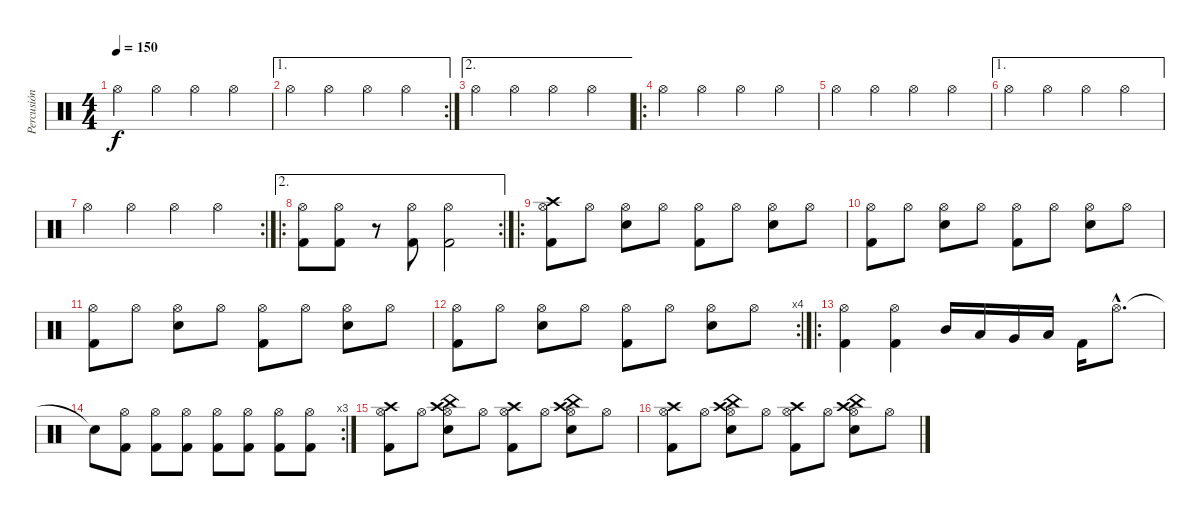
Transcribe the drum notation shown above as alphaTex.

\track ("Percusión (Raymundo Fajardo)" "Percusión ") {instrument percussion}
\staff {score}
\articulation defaults
\ts (4 4)
\tempo 150
\clef neutral
\ks c "Hi-Hat (open)".4{dy f} "Hi-Hat (open)".4 "Hi-Hat (open)".4 "Hi-Hat (open)".4
|
\ae 1
\rc 2 "Hi-Hat (open)".4 "Hi-Hat (open)".4 "Hi-Hat (open)".4 "Hi-Hat (open)".4
|
\ae 2 "Hi-Hat (open)".4 "Hi-Hat (open)".4 "Hi-Hat (open)".4 "Hi-Hat (open)".4
|
\ro "Hi-Hat (open)".4 "Hi-Hat (open)".4 "Hi-Hat (open)".4 "Hi-Hat (open)".4
|
"Hi-Hat (open)".4 "Hi-Hat (open)".4 "Hi-Hat (open)".4 "Hi-Hat (open)".4 |
\ae 1 "Hi-Hat (open)".4 "Hi-Hat (open)".4 "Hi-Hat (open)".4 "Hi-Hat (open)".4
|
\rc 2 "Hi-Hat (open)".4 "Hi-Hat (open)".4 "Hi-Hat (open)".4 "Hi-Hat (open)".4
|
\ae 2
\ro
\rc 2
("Kick (hit) 2" "Hi-Hat (open)").8 ("Kick (hit) 2" "Hi-Hat (open)").8 r.8 ("Kick (hit) 2" "Hi-Hat (open)").8 ("Kick (hit) 2" "Hi-Hat (open)").2 |
\ro
("Hi-Hat (open)" "Crash high (hit)" "Kick (hit) 2").8 "Hi-Hat (open)".8 ("Hi-Hat (open)" "Snare (hit) 2").8 "Hi-Hat (open)".8 ("Hi-Hat (open)" "Kick (hit) 2").8 "Hi-Hat (open)".8 ("Hi-Hat (open)" "Snare (hit) 2").8 "Hi-Hat (open)".8 |
("Hi-Hat (open)" "Kick (hit) 2").8 "Hi-Hat (open)".8 ("Hi-Hat (open)" "Snare (hit) 2").8 "Hi-Hat (open)".8 ("Hi-Hat (open)" "Kick (hit) 2").8 "Hi-Hat (open)".8 ("Hi-Hat (open)" "Snare (hit) 2").8 "Hi-Hat (open)".8 |
("Hi-Hat (open)" "Kick (hit) 2").8 "Hi-Hat (open)".8 ("Hi-Hat (open)" "Snare (hit) 2").8 "Hi-Hat (open)".8 ("Hi-Hat (open)" "Kick (hit) 2").8 "Hi-Hat (open)".8 ("Hi-Hat (open)" "Snare (hit) 2").8 "Hi-Hat (open)".8 |
\rc 4
("Hi-Hat (open)" "Kick (hit) 2").8 "Hi-Hat (open)".8 ("Hi-Hat (open)" "Snare (hit) 2").8 "Hi-Hat (open)".8 ("Hi-Hat (open)" "Kick (hit) 2").8 "Hi-Hat (open)".8 ("Hi-Hat (open)" "Snare (hit) 2").8 "Hi-Hat (open)".8 |
\ro
("Hi-Hat (open)" "Kick (hit) 2").4 ("Hi-Hat (open)" "Kick (hit) 2").4 "Mid Tom (hit)".16 "Low Tom (hit)".16 "Very Low Tom (hit)".16 "Low Floor Tom (hit)".16 "Kick (hit) 2".16 "Hi-Hat (open)"{hac}.8{d} |
\rc 3 "Snare (hit)"{t}.8
("Hi-Hat (open)" "Kick (hit) 2").8 ("Hi-Hat (open)" "Kick (hit) 2").8 ("Hi-Hat (open)" "Kick (hit) 2").8 ("Hi-Hat (open)" "Kick (hit) 2").8 ("Hi-Hat (open)" "Kick (hit) 2").8 ("Hi-Hat (open)" "Kick (hit) 2").8 ("Hi-Hat (open)" "Kick (hit) 2").8 |
("Hi-Hat (open)" "Kick (hit) 2" "Crash high (hit)").8 "Hi-Hat (open)".8 ("Hi-Hat (open)" "Snare (hit) 2" "Crash high (hit)" "China (hit)").8 "Hi-Hat (open)".8 ("Hi-Hat (open)" "Kick (hit) 2" "Crash high (hit)").8 "Hi-Hat (open)".8 ("Hi-Hat (open)" "Snare (hit) 2" "Crash high (hit)" "China (hit)").8 "Hi-Hat (open)".8 |
("Hi-Hat (open)" "Kick (hit) 2" "Crash high (hit)").8 "Hi-Hat (open)".8 ("Hi-Hat (open)" "Snare (hit) 2" "Crash high (hit)" "China (hit)").8 "Hi-Hat (open)".8 ("Hi-Hat (open)" "Kick (hit) 2" "Crash high (hit)").8 "Hi-Hat (open)".8 ("Hi-Hat (open)" "Snare (hit) 2" "Crash high (hit)" "China (hit)").8 "Hi-Hat (open)".8
